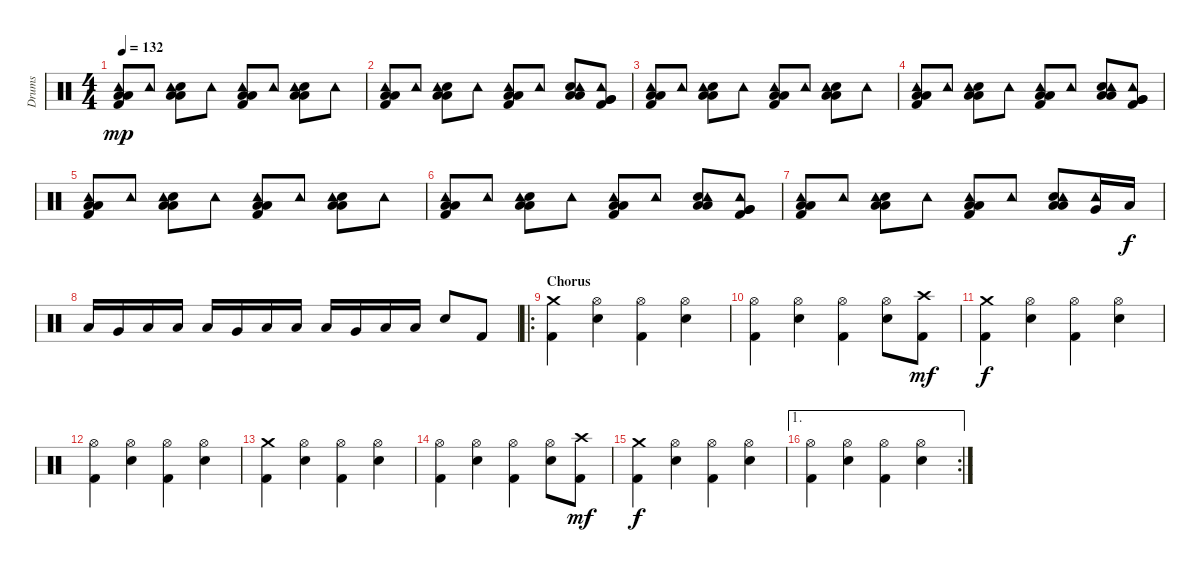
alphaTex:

\track ("Drums" "Drums") {instrument percussion}
\staff {score}
\articulation defaults
\ts (4 4)
\tempo 132
\clef neutral
\ks c
("Kick (hit) 2" "Low Floor Tom (hit)" "Low Floor Tom (hit)" "Tambourine (hit)").8{dy mp} "Tambourine (hit)".8 ("Low Floor Tom (hit)" "Low Floor Tom (hit)" "Snare (hit) 2" "Tambourine (hit)").8 "Tambourine (hit)".8 ("Kick (hit) 2" "Low Floor Tom (hit)" "Low Floor Tom (hit)" "Tambourine (hit)").8 "Tambourine (hit)".8 ("Low Floor Tom (hit)" "Low Floor Tom (hit)" "Snare (hit) 2" "Tambourine (hit)").8 "Tambourine (hit)".8 |
("Kick (hit) 2" "Low Floor Tom (hit)" "Low Floor Tom (hit)" "Tambourine (hit)").8 "Tambourine (hit)".8 ("Low Floor Tom (hit)" "Low Floor Tom (hit)" "Snare (hit) 2" "Tambourine (hit)").8 "Tambourine (hit)".8 ("Kick (hit) 2" "Low Floor Tom (hit)" "Low Floor Tom (hit)" "Tambourine (hit)").8 "Tambourine (hit)".8 ("Low Floor Tom (hit)" "Low Floor Tom (hit)" "Snare (hit) 2" "Tambourine (hit)").8 ("Kick (hit) 2" "Very Low Tom (hit)" "Very Low Tom (hit)" "Tambourine (hit)").8 |
("Kick (hit) 2" "Low Floor Tom (hit)" "Low Floor Tom (hit)" "Tambourine (hit)").8 "Tambourine (hit)".8 ("Low Floor Tom (hit)" "Low Floor Tom (hit)" "Snare (hit) 2" "Tambourine (hit)").8 "Tambourine (hit)".8 ("Kick (hit) 2" "Low Floor Tom (hit)" "Low Floor Tom (hit)" "Tambourine (hit)").8 "Tambourine (hit)".8 ("Low Floor Tom (hit)" "Low Floor Tom (hit)" "Snare (hit) 2" "Tambourine (hit)").8 "Tambourine (hit)".8 |
("Kick (hit) 2" "Low Floor Tom (hit)" "Low Floor Tom (hit)" "Tambourine (hit)").8 "Tambourine (hit)".8 ("Low Floor Tom (hit)" "Low Floor Tom (hit)" "Snare (hit) 2" "Tambourine (hit)").8 "Tambourine (hit)".8 ("Kick (hit) 2" "Low Floor Tom (hit)" "Low Floor Tom (hit)" "Tambourine (hit)").8 "Tambourine (hit)".8 ("Low Floor Tom (hit)" "Low Floor Tom (hit)" "Snare (hit) 2" "Tambourine (hit)").8 ("Kick (hit) 2" "Very Low Tom (hit)" "Very Low Tom (hit)" "Tambourine (hit)").8 |
("Kick (hit) 2" "Low Floor Tom (hit)" "Low Floor Tom (hit)" "Tambourine (hit)").8 "Tambourine (hit)".8 ("Low Floor Tom (hit)" "Low Floor Tom (hit)" "Snare (hit) 2" "Tambourine (hit)").8 "Tambourine (hit)".8 ("Kick (hit) 2" "Low Floor Tom (hit)" "Low Floor Tom (hit)" "Tambourine (hit)").8 "Tambourine (hit)".8 ("Low Floor Tom (hit)" "Low Floor Tom (hit)" "Snare (hit) 2" "Tambourine (hit)").8 "Tambourine (hit)".8 |
("Kick (hit) 2" "Low Floor Tom (hit)" "Low Floor Tom (hit)" "Tambourine (hit)").8 "Tambourine (hit)".8 ("Low Floor Tom (hit)" "Low Floor Tom (hit)" "Snare (hit) 2" "Tambourine (hit)").8 "Tambourine (hit)".8 ("Kick (hit) 2" "Low Floor Tom (hit)" "Low Floor Tom (hit)" "Tambourine (hit)").8 "Tambourine (hit)".8 ("Low Floor Tom (hit)" "Low Floor Tom (hit)" "Snare (hit) 2" "Tambourine (hit)").8 ("Kick (hit) 2" "Very Low Tom (hit)" "Very Low Tom (hit)" "Tambourine (hit)").8 |
("Kick (hit) 2" "Low Floor Tom (hit)" "Low Floor Tom (hit)" "Tambourine (hit)").8 "Tambourine (hit)".8 ("Low Floor Tom (hit)" "Low Floor Tom (hit)" "Snare (hit) 2" "Tambourine (hit)").8 "Tambourine (hit)".8 ("Kick (hit) 2" "Low Floor Tom (hit)" "Low Floor Tom (hit)" "Tambourine (hit)").8 "Tambourine (hit)".8 ("Low Floor Tom (hit)" "Low Floor Tom (hit)" "Snare (hit) 2" "Tambourine (hit)").8 ("Very Low Tom (hit)" "Tambourine (hit)").16 "Low Floor Tom (hit)".16{dy f} |
"Low Tom (hit)".16 "Very Low Tom (hit)".16 "Low Floor Tom (hit)".16 "Low Floor Tom (hit)".16 "Low Tom (hit)".16 "Very Low Tom (hit)".16 "Low Floor Tom (hit)".16 "Low Floor Tom (hit)".16 "Low Tom (hit)".16 "Very Low Tom (hit)".16 "Low Floor Tom (hit)".16 "Low Floor Tom (hit)".16 "Snare (hit) 2".8 "Kick (hit) 2".8 |
\ro
\section ("" "Chorus")
("Kick (hit) 2" "Crash medium (hit)").4 ("Hi-Hat (open)" "Snare (hit) 2").4 ("Kick (hit) 2" "Hi-Hat (open)").4 ("Hi-Hat (open)" "Snare (hit) 2").4 |
("Kick (hit) 2" "Hi-Hat (open)").4 ("Hi-Hat (open)" "Snare (hit) 2").4 ("Kick (hit) 2" "Hi-Hat (open)").4 ("Hi-Hat (open)" "Snare (hit) 2").8 ("Kick (hit) 2" "Crash high (hit)").8{dy mf} |
("Kick (hit) 2" "Crash medium (hit)").4{dy f} ("Hi-Hat (open)" "Snare (hit) 2").4 ("Kick (hit) 2" "Hi-Hat (open)").4 ("Hi-Hat (open)" "Snare (hit) 2").4 |
("Kick (hit) 2" "Hi-Hat (open)").4 ("Hi-Hat (open)" "Snare (hit) 2").4 ("Kick (hit) 2" "Hi-Hat (open)").4 ("Hi-Hat (open)" "Snare (hit) 2").4 |
("Kick (hit) 2" "Crash medium (hit)").4 ("Hi-Hat (open)" "Snare (hit) 2").4 ("Kick (hit) 2" "Hi-Hat (open)").4 ("Hi-Hat (open)" "Snare (hit) 2").4 |
("Kick (hit) 2" "Hi-Hat (open)").4 ("Hi-Hat (open)" "Snare (hit) 2").4 ("Kick (hit) 2" "Hi-Hat (open)").4 ("Hi-Hat (open)" "Snare (hit) 2").8 ("Kick (hit) 2" "Crash high (hit)").8{dy mf} |
("Kick (hit) 2" "Crash medium (hit)").4{dy f} ("Hi-Hat (open)" "Snare (hit) 2").4 ("Kick (hit) 2" "Hi-Hat (open)").4 ("Hi-Hat (open)" "Snare (hit) 2").4 |
\ae 1
\rc 2
("Kick (hit) 2" "Hi-Hat (open)").4 ("Hi-Hat (open)" "Snare (hit) 2").4 ("Kick (hit) 2" "Hi-Hat (open)").4 ("Hi-Hat (open)" "Snare (hit) 2").4
